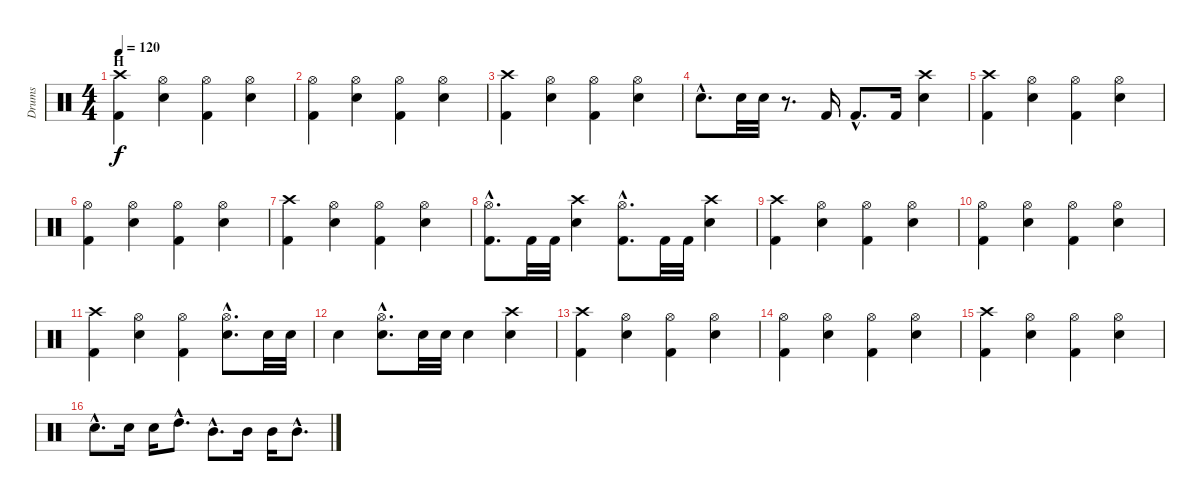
\track ("Drums" "Drums") {instrument percussion}
\staff {score}
\articulation defaults
\ts (4 4)
\section ("" "H")
\tempo 120
\clef neutral
\ks c
("Crash high (hit)" "Kick (hit) 2").4{dy f} ("Hi-Hat (open)" "Electric Snare (hit)").4 ("Hi-Hat (open)" "Kick (hit) 2").4 ("Hi-Hat (open)" "Electric Snare (hit)").4 |
("Hi-Hat (open)" "Kick (hit) 2").4 ("Hi-Hat (open)" "Electric Snare (hit)").4 ("Hi-Hat (open)" "Kick (hit) 2").4 ("Hi-Hat (open)" "Electric Snare (hit)").4 |
("Crash high (hit)" "Kick (hit) 2").4 ("Hi-Hat (open)" "Electric Snare (hit)").4 ("Hi-Hat (open)" "Kick (hit) 2").4 ("Hi-Hat (open)" "Electric Snare (hit)").4 |
"Electric Snare (hit)"{hac}.8{d} "Electric Snare (hit)".32 "Electric Snare (hit)".32 r.8{d} "Kick (hit) 2".16 "Kick (hit) 2"{hac}.8{d} "Kick (hit) 2".16 ("Crash high (hit)" "Electric Snare (hit)").4 |
("Crash high (hit)" "Kick (hit) 2").4 ("Hi-Hat (open)" "Electric Snare (hit)").4 ("Hi-Hat (open)" "Kick (hit) 2").4 ("Hi-Hat (open)" "Electric Snare (hit)").4 |
("Hi-Hat (open)" "Kick (hit) 2").4 ("Hi-Hat (open)" "Electric Snare (hit)").4 ("Hi-Hat (open)" "Kick (hit) 2").4 ("Hi-Hat (open)" "Electric Snare (hit)").4 |
("Crash high (hit)" "Kick (hit) 2").4 ("Hi-Hat (open)" "Electric Snare (hit)").4 ("Hi-Hat (open)" "Kick (hit) 2").4 ("Hi-Hat (open)" "Electric Snare (hit)").4 |
("Hi-Hat (open)"{hac} "Kick (hit) 2"{hac}).8{d} "Kick (hit) 2".32 "Kick (hit) 2".32 ("Crash high (hit)" "Electric Snare (hit)").4 ("Hi-Hat (open)"{hac} "Kick (hit) 2"{hac}).8{d} "Kick (hit) 2".32 "Kick (hit) 2".32 ("Crash high (hit)" "Electric Snare (hit)").4 |
("Crash high (hit)" "Kick (hit) 2").4 ("Hi-Hat (open)" "Electric Snare (hit)").4 ("Hi-Hat (open)" "Kick (hit) 2").4 ("Hi-Hat (open)" "Electric Snare (hit)").4 |
("Hi-Hat (open)" "Kick (hit) 2").4 ("Hi-Hat (open)" "Electric Snare (hit)").4 ("Hi-Hat (open)" "Kick (hit) 2").4 ("Hi-Hat (open)" "Electric Snare (hit)").4 |
("Crash high (hit)" "Kick (hit) 2").4 ("Hi-Hat (open)" "Electric Snare (hit)").4 ("Hi-Hat (open)" "Kick (hit) 2").4 ("Hi-Hat (open)"{hac} "Electric Snare (hit)"{hac}).8{d} "Electric Snare (hit)".32 "Electric Snare (hit)".32 |
"Electric Snare (hit)".4 ("Hi-Hat (open)"{hac} "Electric Snare (hit)"{hac}).8{d} "Electric Snare (hit)".32 "Electric Snare (hit)".32 "Electric Snare (hit)".4 ("Crash high (hit)" "Electric Snare (hit)").4 |
("Crash high (hit)" "Kick (hit) 2").4 ("Hi-Hat (open)" "Electric Snare (hit)").4 ("Hi-Hat (open)" "Kick (hit) 2").4 ("Hi-Hat (open)" "Electric Snare (hit)").4 |
("Hi-Hat (open)" "Kick (hit) 2").4 ("Hi-Hat (open)" "Electric Snare (hit)").4 ("Hi-Hat (open)" "Kick (hit) 2").4 ("Hi-Hat (open)" "Electric Snare (hit)").4 |
("Crash high (hit)" "Kick (hit) 2").4 ("Hi-Hat (open)" "Electric Snare (hit)").4 ("Hi-Hat (open)" "Kick (hit) 2").4 ("Hi-Hat (open)" "Electric Snare (hit)").4 |
"Electric Snare (hit)"{hac}.8{d} "Electric Snare (hit)".16 "Electric Snare (hit)".16 "High Tom (hit)"{hac}.8{d} "Mid Tom (hit)"{hac}.8{d} "Mid Tom (hit)".16 "Mid Tom (hit)".16 "Mid Tom (hit)"{hac}.8{d}
